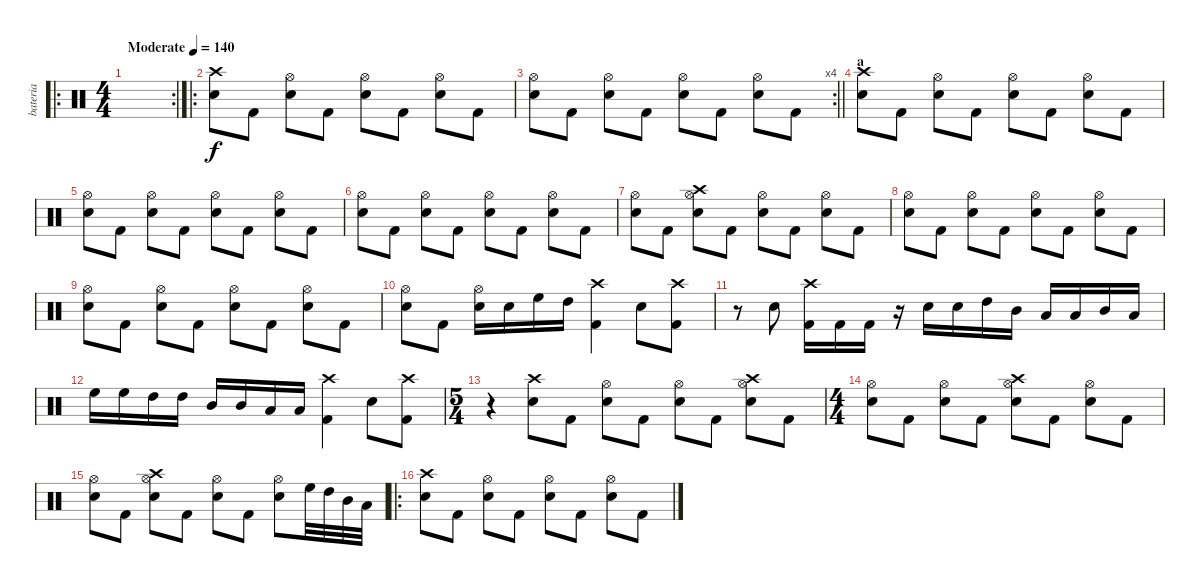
\track ("bateria" "bateria") {mute instrument percussion}
\staff {score}
\articulation defaults
\ro
\rc 2
\ts (4 4)
\tempo (140 "Moderate")
\clef neutral
\ks c
|
\ro
("Electric Snare (hit)" "Crash high (hit)").8 "Kick (hit) 2".8 ("Electric Snare (hit)" "Hi-Hat (open)").8 "Kick (hit) 2".8 ("Electric Snare (hit)" "Hi-Hat (open)").8 "Kick (hit) 2".8 ("Electric Snare (hit)" "Hi-Hat (open)").8 "Kick (hit) 2".8 |
\rc 4
\barLineRight lightlight
("Electric Snare (hit)" "Hi-Hat (open)").8 "Kick (hit) 2".8 ("Electric Snare (hit)" "Hi-Hat (open)").8 "Kick (hit) 2".8 ("Electric Snare (hit)" "Hi-Hat (open)").8 "Kick (hit) 2".8 ("Electric Snare (hit)" "Hi-Hat (open)").8 "Kick (hit) 2".8 |
\section ("" "a")
("Electric Snare (hit)" "Crash high (hit)").8 "Kick (hit) 2".8 ("Electric Snare (hit)" "Hi-Hat (open)").8 "Kick (hit) 2".8 ("Electric Snare (hit)" "Hi-Hat (open)").8 "Kick (hit) 2".8 ("Electric Snare (hit)" "Hi-Hat (open)").8 "Kick (hit) 2".8 |
("Electric Snare (hit)" "Hi-Hat (open)").8 "Kick (hit) 2".8 ("Electric Snare (hit)" "Hi-Hat (open)").8 "Kick (hit) 2".8 ("Electric Snare (hit)" "Hi-Hat (open)").8 "Kick (hit) 2".8 ("Electric Snare (hit)" "Hi-Hat (open)").8 "Kick (hit) 2".8 |
("Electric Snare (hit)" "Hi-Hat (open)").8 "Kick (hit) 2".8 ("Electric Snare (hit)" "Hi-Hat (open)").8 "Kick (hit) 2".8 ("Electric Snare (hit)" "Hi-Hat (open)").8 "Kick (hit) 2".8 ("Electric Snare (hit)" "Hi-Hat (open)").8 "Kick (hit) 2".8 |
("Electric Snare (hit)" "Hi-Hat (open)").8 "Kick (hit) 2".8 ("Electric Snare (hit)" "Hi-Hat (open)" "Crash high (hit)").8 "Kick (hit) 2".8 ("Electric Snare (hit)" "Hi-Hat (open)").8 "Kick (hit) 2".8 ("Electric Snare (hit)" "Hi-Hat (open)").8 "Kick (hit) 2".8 |
("Electric Snare (hit)" "Hi-Hat (open)").8 "Kick (hit) 2".8 ("Electric Snare (hit)" "Hi-Hat (open)").8 "Kick (hit) 2".8 ("Electric Snare (hit)" "Hi-Hat (open)").8 "Kick (hit) 2".8 ("Electric Snare (hit)" "Hi-Hat (open)").8 "Kick (hit) 2".8 |
("Electric Snare (hit)" "Hi-Hat (open)").8 "Kick (hit) 2".8 ("Electric Snare (hit)" "Hi-Hat (open)").8 "Kick (hit) 2".8 ("Electric Snare (hit)" "Hi-Hat (open)").8 "Kick (hit) 2".8 ("Electric Snare (hit)" "Hi-Hat (open)").8 "Kick (hit) 2".8 |
("Electric Snare (hit)" "Hi-Hat (open)").8 "Kick (hit) 2".8 ("Electric Snare (hit)" "Hi-Hat (open)").16 "Electric Snare (hit)".16 "High Floor Tom (hit)".16 "High Tom (hit)".16 ("Kick (hit) 2" "Crash high (hit)").4 "Electric Snare (hit)".8 ("Kick (hit) 2" "Crash high (hit)").8 |
r.8 "Electric Snare (hit)".8 ("Crash high (hit)" "Kick (hit) 2").16 "Kick (hit) 2".16 "Kick (hit) 2".16 r.16 "Electric Snare (hit)".16 "Electric Snare (hit)".16 "High Tom (hit)".16 "Mid Tom (hit)".16 "Low Tom (hit)".16 "Low Tom (hit)".16 "Mid Tom (hit)".16 "Low Tom (hit)".16 |
"High Floor Tom (hit)".16 "High Floor Tom (hit)".16 "High Tom (hit)".16 "High Tom (hit)".16 "Mid Tom (hit)".16 "Mid Tom (hit)".16 "Low Tom (hit)".16 "Low Tom (hit)".16 ("Kick (hit) 2" "Crash high (hit)").4 "Electric Snare (hit)".8 ("Kick (hit) 2" "Crash high (hit)").8 |
\ts (5 4)
r.4 ("Electric Snare (hit)" "Crash high (hit)").8 "Kick (hit) 2".8 ("Electric Snare (hit)" "Hi-Hat (open)").8 "Kick (hit) 2".8 ("Electric Snare (hit)" "Hi-Hat (open)").8 "Kick (hit) 2".8 ("Electric Snare (hit)" "Hi-Hat (open)" "Crash high (hit)").8 "Kick (hit) 2".8 |
\ts (4 4)
("Electric Snare (hit)" "Hi-Hat (open)").8 "Kick (hit) 2".8 ("Electric Snare (hit)" "Hi-Hat (open)").8 "Kick (hit) 2".8 ("Electric Snare (hit)" "Hi-Hat (open)" "Crash high (hit)").8 "Kick (hit) 2".8 ("Electric Snare (hit)" "Hi-Hat (open)").8 "Kick (hit) 2".8 |
("Electric Snare (hit)" "Hi-Hat (open)").8 "Kick (hit) 2".8 ("Electric Snare (hit)" "Hi-Hat (open)" "Crash high (hit)").8 "Kick (hit) 2".8 ("Electric Snare (hit)" "Hi-Hat (open)").8 "Kick (hit) 2".8 ("Electric Snare (hit)" "Hi-Hat (open)").8 "High Floor Tom (hit)".32 "High Tom (hit)".32 "Mid Tom (hit)".32 "Low Tom (hit)".32 |
\ro
("Electric Snare (hit)" "Crash high (hit)").8 "Kick (hit) 2".8 ("Electric Snare (hit)" "Hi-Hat (open)").8 "Kick (hit) 2".8 ("Electric Snare (hit)" "Hi-Hat (open)").8 "Kick (hit) 2".8 ("Electric Snare (hit)" "Hi-Hat (open)").8 "Kick (hit) 2".8
